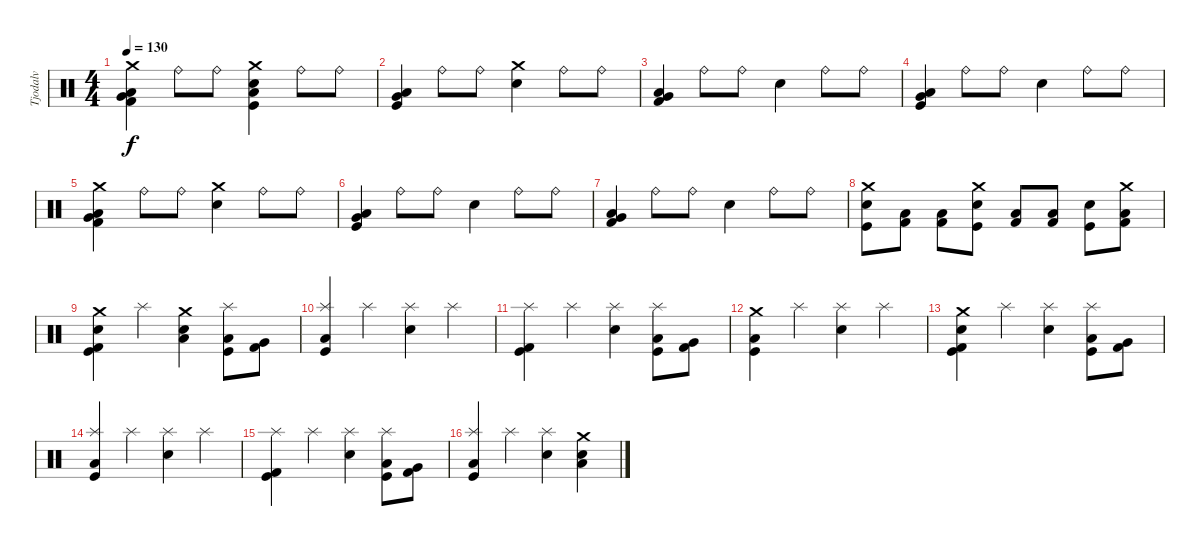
\track ("Tjodalv" "Tjodalv") {instrument percussion}
\staff {score}
\articulation defaults
\ts (4 4)
\tempo 130
\clef neutral
\ks c
("Crash medium (hit)" "Low Floor Tom (hit)" "Very Low Tom (hit)" "Kick (hit) 2").4{dy f} "Ride (bell)".8 "Ride (bell)".8 ("Crash medium (hit)" "Snare (hit) 2" "Low Floor Tom (hit)" "Kick (hit)").4 "Ride (bell)".8 "Ride (bell)".8 |
("Low Floor Tom (hit)" "Very Low Tom (hit)" "Kick (hit)").4 "Ride (bell)".8 "Ride (bell)".8 ("Snare (hit) 2" "Crash medium (hit)").4 "Ride (bell)".8 "Ride (bell)".8 |
("Low Floor Tom (hit)" "Very Low Tom (hit)" "Kick (hit) 2").4 "Ride (bell)".8 "Ride (bell)".8 "Snare (hit) 2".4 "Ride (bell)".8 "Ride (bell)".8 |
("Low Floor Tom (hit)" "Very Low Tom (hit)" "Kick (hit)").4 "Ride (bell)".8 "Ride (bell)".8 "Snare (hit) 2".4 "Ride (bell)".8 "Ride (bell)".8 |
("Crash medium (hit)" "Low Floor Tom (hit)" "Very Low Tom (hit)" "Kick (hit) 2").4 "Ride (bell)".8 "Ride (bell)".8 ("Snare (hit) 2" "Crash medium (hit)").4 "Ride (bell)".8 "Ride (bell)".8 |
("Low Floor Tom (hit)" "Very Low Tom (hit)" "Kick (hit)").4 "Ride (bell)".8 "Ride (bell)".8 "Snare (hit) 2".4 "Ride (bell)".8 "Ride (bell)".8 |
("Low Floor Tom (hit)" "Very Low Tom (hit)" "Kick (hit) 2").4 "Ride (bell)".8 "Ride (bell)".8 "Snare (hit) 2".4 "Ride (bell)".8 "Ride (bell)".8 |
("Crash medium (hit)" "Snare (hit) 2" "Kick (hit)").8 ("Low Floor Tom (hit)" "Kick (hit) 2").8 ("Low Floor Tom (hit)" "Kick (hit) 2").8 ("Crash medium (hit)" "Snare (hit) 2" "Kick (hit)").8 ("Low Floor Tom (hit)" "Kick (hit) 2").8 ("Low Floor Tom (hit)" "Kick (hit) 2").8 ("Snare (hit) 2" "Kick (hit)").8 ("Crash medium (hit)" "Low Floor Tom (hit)" "Kick (hit) 2").8 |
("Crash medium (hit)" "Snare (hit) 2" "Kick (hit)" "Kick (hit) 2").4 "Splash (hit)".4 ("Crash medium (hit)" "Snare (hit) 2" "Low Floor Tom (hit)").4 ("Splash (hit)" "Kick (hit)" "Low Floor Tom (hit)").8 ("Kick (hit) 2" "Very Low Tom (hit)").8 |
("Splash (hit)" "Low Tom (hit)" "Kick (hit)").4 "Splash (hit)".4 ("Splash (hit)" "Snare (hit) 2").4 "Splash (hit)".4 |
("Splash (hit)" "Kick (hit)" "Kick (hit) 2").4 "Splash (hit)".4 ("Splash (hit)" "Snare (hit) 2").4 ("Splash (hit)" "Kick (hit)" "Low Floor Tom (hit)").8 ("Kick (hit) 2" "Very Low Tom (hit)").8 |
("Crash medium (hit)" "Kick (hit)" "Low Tom (hit)").4 "Splash (hit)".4 ("Splash (hit)" "Snare (hit) 2").4 "Splash (hit)".4 |
("Crash medium (hit)" "Snare (hit) 2" "Kick (hit)" "Kick (hit) 2").4{volume 11} "Splash (hit)".4{volume 11} ("Splash (hit)" "Snare (hit) 2").4{volume 11} ("Splash (hit)" "Kick (hit)" "Low Floor Tom (hit)").8{volume 11} ("Kick (hit) 2" "Very Low Tom (hit)").8{volume 11} |
("Splash (hit)" "Low Tom (hit)" "Kick (hit)").4{volume 10} "Splash (hit)".4{volume 10} ("Splash (hit)" "Snare (hit) 2").4{volume 9} "Splash (hit)".4{volume 9} |
("Splash (hit)" "Kick (hit)" "Kick (hit) 2").4{volume 8} "Splash (hit)".4{volume 8} ("Splash (hit)" "Snare (hit) 2").4{volume 7} ("Splash (hit)" "Kick (hit)" "Low Floor Tom (hit)").8{volume 6} ("Kick (hit) 2" "Very Low Tom (hit)").8{volume 6} |
("Splash (hit)" "Low Tom (hit)" "Kick (hit)").4{volume 5} "Splash (hit)".4{volume 5} ("Splash (hit)" "Snare (hit) 2").4{volume 4} ("Snare (hit) 2" "Crash medium (hit)" "Low Floor Tom (hit)").4{volume 4}
